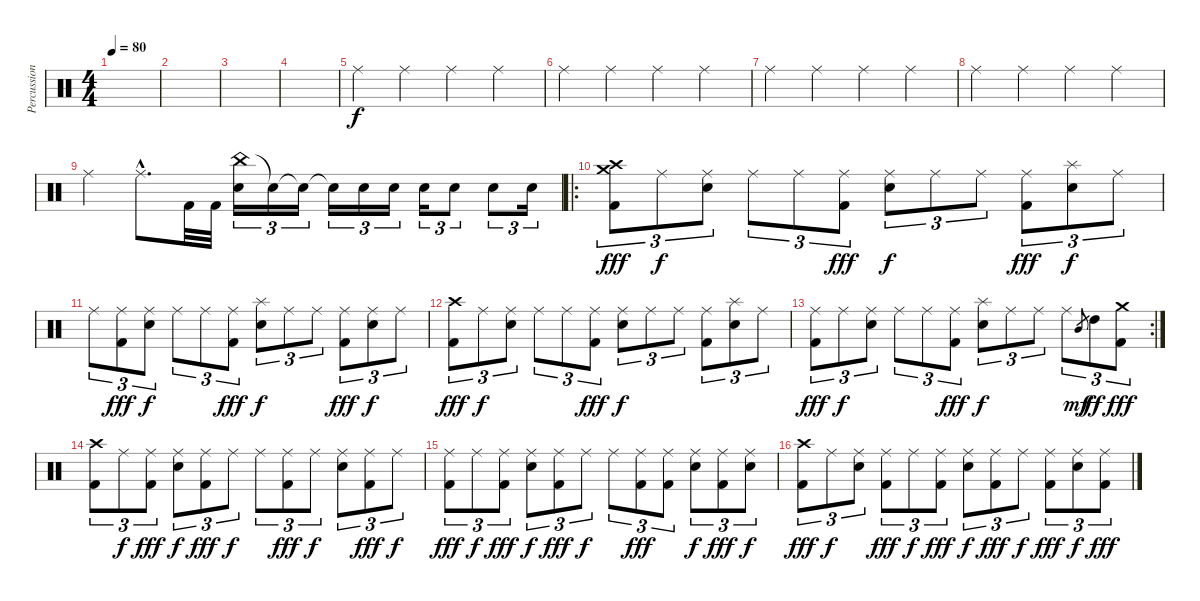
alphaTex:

\track ("Percussion" "Percussion") {instrument percussion}
\staff {score}
\articulation defaults
\ts (4 4)
\tempo 80
\clef neutral
\ks c
|
|
|
|
"Ride (middle)".4 "Ride (middle)".4 "Ride (middle)".4 "Ride (middle)".4 |
"Ride (middle)".4 "Ride (middle)".4 "Ride (middle)".4 "Ride (middle)".4 |
"Ride (middle)".4 "Ride (middle)".4 "Ride (middle)".4 "Ride (middle)".4 |
"Ride (middle)".4 "Ride (middle)".4 "Ride (middle)".4 "Ride (middle)".4 |
"Ride (middle)".4 "Ride (middle)"{hac}.8{d} "Kick (hit) 2".32 "Kick (hit) 2".32 ("China (hit)" "Electric Snare (hit)").16{tu (3 2)} "Snare (hit)"{t}.16{tu (3 2)} "Snare (hit)"{t}.16{tu (3 2)} "Snare (hit)"{t}.16{tu (3 2)} "Electric Snare (hit)".16{tu (3 2)} "Electric Snare (hit)".16{tu (3 2)} "Electric Snare (hit)".16{tu (3 2)} "Electric Snare (hit)".8{tu (3 2)} "Electric Snare (hit)".8{tu (3 2)} "Electric Snare (hit)".16{tu (3 2)} |
\ro
("Crash medium (hit)" "Crash high (hit)" "Kick (hit) 2").8{tu (3 2) dy fff} "Ride (middle)".8{tu (3 2) dy f} ("Ride (middle)" "Electric Snare (hit)").8{tu (3 2)} "Ride (middle)".8{tu (3 2)} "Ride (middle)".8{tu (3 2)} ("Ride (middle)" "Kick (hit) 2").8{tu (3 2) dy fff} ("Ride (middle)" "Electric Snare (hit)").8{tu (3 2) dy f} "Ride (middle)".8{tu (3 2)} "Ride (middle)".8{tu (3 2)} ("Ride (middle)" "Kick (hit) 2").8{tu (3 2) dy fff} ("Splash (hit)" "Electric Snare (hit)").8{tu (3 2) dy f} "Ride (middle)".8{tu (3 2)} |
"Ride (middle)".8{tu (3 2)} ("Ride (middle)" "Kick (hit) 2").8{tu (3 2) dy fff} ("Ride (middle)" "Electric Snare (hit)").8{tu (3 2) dy f} "Ride (middle)".8{tu (3 2)} "Ride (middle)".8{tu (3 2)} ("Ride (middle)" "Kick (hit) 2").8{tu (3 2) dy fff} ("Splash (hit)" "Electric Snare (hit)").8{tu (3 2) dy f} "Ride (middle)".8{tu (3 2)} "Ride (middle)".8{tu (3 2)} ("Ride (middle)" "Kick (hit) 2").8{tu (3 2) dy fff} ("Ride (middle)" "Electric Snare (hit)").8{tu (3 2) dy f} "Ride (middle)".8{tu (3 2)} |
("Crash high (hit)" "Kick (hit) 2").8{tu (3 2) dy fff} "Ride (middle)".8{tu (3 2) dy f} ("Ride (middle)" "Electric Snare (hit)").8{tu (3 2)} "Ride (middle)".8{tu (3 2)} "Ride (middle)".8{tu (3 2)} ("Ride (middle)" "Kick (hit) 2").8{tu (3 2) dy fff} ("Ride (middle)" "Electric Snare (hit)").8{tu (3 2) dy f} "Ride (middle)".8{tu (3 2)} "Ride (middle)".8{tu (3 2)} ("Ride (middle)" "Kick (hit) 2").8{tu (3 2)} ("Splash (hit)" "Electric Snare (hit)").8{tu (3 2)} "Ride (middle)".8{tu (3 2)} |
\rc 2
("Ride (middle)" "Kick (hit) 2").8{tu (3 2) dy fff} "Ride (middle)".8{tu (3 2) dy f} ("Ride (middle)" "Electric Snare (hit)").8{tu (3 2)} "Ride (middle)".8{tu (3 2)} "Ride (middle)".8{tu (3 2)} ("Ride (middle)" "Kick (hit) 2").8{tu (3 2) dy fff} ("Splash (hit)" "Electric Snare (hit)").8{tu (3 2) dy f} "Ride (middle)".8{tu (3 2)} "Ride (middle)".8{tu (3 2)} "Ride (middle)".8{tu (3 2)} "Mid Tom (hit)".8{gr dy mf} "High Tom (hit)".8{tu (3 2) dy ff} ("Crash medium (hit)" "Kick (hit) 2").8{tu (3 2) dy fff} |
("Crash high (hit)" "Kick (hit) 2").8{tu (3 2)} "Ride (middle)".8{tu (3 2) dy f} ("Ride (middle)" "Kick (hit) 2").8{tu (3 2) dy fff} ("Ride (middle)" "Electric Snare (hit)").8{tu (3 2) dy f} ("Ride (middle)" "Kick (hit) 2").8{tu (3 2) dy fff} "Ride (middle)".8{tu (3 2) dy f} "Ride (middle)".8{tu (3 2)} ("Ride (middle)" "Kick (hit) 2").8{tu (3 2) dy fff} "Ride (middle)".8{tu (3 2) dy f} ("Ride (middle)" "Electric Snare (hit)").8{tu (3 2)} ("Ride (middle)" "Kick (hit) 2").8{tu (3 2) dy fff} "Ride (middle)".8{tu (3 2) dy f} |
("Ride (middle)" "Kick (hit) 2").8{tu (3 2) dy fff} "Ride (middle)".8{tu (3 2) dy f} ("Ride (middle)" "Kick (hit) 2").8{tu (3 2) dy fff} ("Ride (middle)" "Electric Snare (hit)").8{tu (3 2) dy f} ("Ride (middle)" "Kick (hit) 2").8{tu (3 2) dy fff} "Ride (middle)".8{tu (3 2) dy f} "Ride (middle)".8{tu (3 2)} ("Ride (middle)" "Kick (hit) 2").8{tu (3 2) dy fff} ("Ride (middle)" "Kick (hit) 2").8{tu (3 2)} ("Ride (middle)" "Electric Snare (hit)").8{tu (3 2) dy f} ("Ride (middle)" "Kick (hit) 2").8{tu (3 2) dy fff} ("Ride (middle)" "Electric Snare (hit)").8{tu (3 2) dy f} |
("Crash high (hit)" "Kick (hit) 2").8{tu (3 2) dy fff} "Ride (middle)".8{tu (3 2) dy f} ("Ride (middle)" "Electric Snare (hit)").8{tu (3 2)} ("Ride (middle)" "Kick (hit) 2").8{tu (3 2) dy fff} "Ride (middle)".8{tu (3 2) dy f} ("Ride (middle)" "Kick (hit) 2").8{tu (3 2) dy fff} ("Ride (middle)" "Electric Snare (hit)").8{tu (3 2) dy f} ("Ride (middle)" "Kick (hit) 2").8{tu (3 2) dy fff} "Ride (middle)".8{tu (3 2) dy f} ("Ride (middle)" "Kick (hit) 2").8{tu (3 2) dy fff} ("Ride (middle)" "Electric Snare (hit)").8{tu (3 2) dy f} ("Ride (middle)" "Kick (hit) 2").8{tu (3 2) dy fff}
